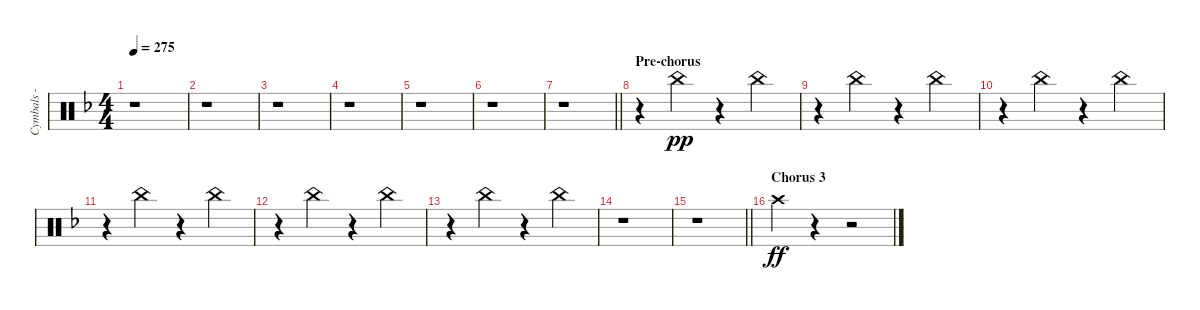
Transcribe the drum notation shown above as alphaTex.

\track ("Cymbals - crash" "Cymbals - ") {instrument percussion}
\staff {score}
\articulation defaults
\ts (4 4)
\tempo 275
\clef neutral
\ks dminor
r.1{dy ff} |
r.1 |
r.1 |
r.1 |
r.1 |
r.1 |
\barLineRight lightlight
r.1 |
\section ("" "Pre-chorus")
r.4 "China (hit)".4{dy pp} r.4 "China (hit)".4 |
r.4 "China (hit)".4 r.4 "China (hit)".4 |
r.4 "China (hit)".4 r.4 "China (hit)".4 |
r.4 "China (hit)".4 r.4 "China (hit)".4 |
r.4 "China (hit)".4 r.4 "China (hit)".4 |
r.4 "China (hit)".4 r.4 "China (hit)".4 |
r.1 |
\barLineRight lightlight
r.1 |
\section ("" "Chorus 3")
"Crash high (hit)".4{dy ff} r.4 r.2
